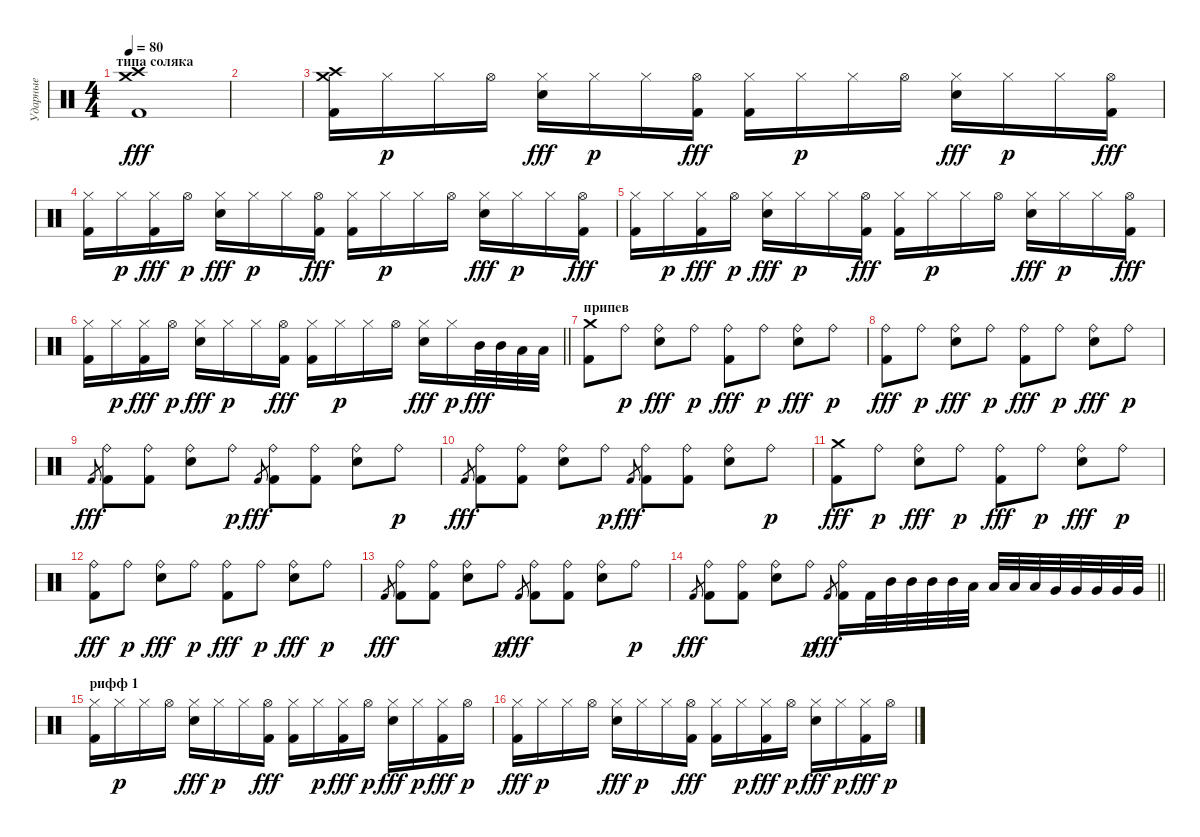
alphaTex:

\track ("Ударные" "Ударные") {instrument percussion}
\staff {score}
\articulation defaults
\ts (4 4)
\section ("" "типа соляка")
\tempo 80
\clef neutral
\ks c
("Crash medium (hit)" "Crash high (hit)" "Kick (hit) 2").1{dy fff} |
|
("Crash medium (hit)" "Crash high (hit)" "Kick (hit) 2").16 "Hi-Hat (closed)".16{dy p} "Hi-Hat (closed)".16 "Hi-Hat (open)".16 ("Hi-Hat (closed)" "Snare (hit) 2").16{dy fff} "Hi-Hat (closed)".16{dy p} "Hi-Hat (closed)".16 ("Hi-Hat (open)" "Kick (hit) 2").16{dy fff} ("Hi-Hat (closed)" "Kick (hit) 2").16 "Hi-Hat (closed)".16{dy p} "Hi-Hat (closed)".16 "Hi-Hat (open)".16 ("Hi-Hat (closed)" "Snare (hit) 2").16{dy fff} "Hi-Hat (closed)".16{dy p} "Hi-Hat (closed)".16 ("Hi-Hat (open)" "Kick (hit) 2").16{dy fff} |
("Hi-Hat (closed)" "Kick (hit) 2").16 "Hi-Hat (closed)".16{dy p} ("Hi-Hat (closed)" "Kick (hit) 2").16{dy fff} "Hi-Hat (open)".16{dy p} ("Hi-Hat (closed)" "Snare (hit) 2").16{dy fff} "Hi-Hat (closed)".16{dy p} "Hi-Hat (closed)".16 ("Hi-Hat (open)" "Kick (hit) 2").16{dy fff} ("Hi-Hat (closed)" "Kick (hit) 2").16 "Hi-Hat (closed)".16{dy p} "Hi-Hat (closed)".16 "Hi-Hat (open)".16 ("Hi-Hat (closed)" "Snare (hit) 2").16{dy fff} "Hi-Hat (closed)".16{dy p} "Hi-Hat (closed)".16 ("Hi-Hat (open)" "Kick (hit) 2").16{dy fff} |
("Hi-Hat (closed)" "Kick (hit) 2").16 "Hi-Hat (closed)".16{dy p} ("Hi-Hat (closed)" "Kick (hit) 2").16{dy fff} "Hi-Hat (open)".16{dy p} ("Hi-Hat (closed)" "Snare (hit) 2").16{dy fff} "Hi-Hat (closed)".16{dy p} "Hi-Hat (closed)".16 ("Hi-Hat (open)" "Kick (hit) 2").16{dy fff} ("Hi-Hat (closed)" "Kick (hit) 2").16 "Hi-Hat (closed)".16{dy p} "Hi-Hat (closed)".16 "Hi-Hat (open)".16 ("Hi-Hat (closed)" "Snare (hit) 2").16{dy fff} "Hi-Hat (closed)".16{dy p} "Hi-Hat (closed)".16 ("Hi-Hat (open)" "Kick (hit) 2").16{dy fff} |
\barLineRight lightlight
("Hi-Hat (closed)" "Kick (hit) 2").16 "Hi-Hat (closed)".16{dy p} ("Hi-Hat (closed)" "Kick (hit) 2").16{dy fff} "Hi-Hat (open)".16{dy p} ("Hi-Hat (closed)" "Snare (hit) 2").16{dy fff} "Hi-Hat (closed)".16{dy p} "Hi-Hat (closed)".16 ("Hi-Hat (open)" "Kick (hit) 2").16{dy fff} ("Hi-Hat (closed)" "Kick (hit) 2").16 "Hi-Hat (closed)".16{dy p} "Hi-Hat (closed)".16 "Hi-Hat (open)".16 ("Hi-Hat (closed)" "Snare (hit) 2").16{dy fff} "Hi-Hat (closed)".16{dy p} "Mid Tom (hit)".32{dy fff} "Mid Tom (hit)".32 "Low Tom (hit)".32 "Low Tom (hit)".32 |
\section ("" "припев")
("Crash medium (hit)" "Kick (hit) 2").8 "Ride (bell)".8{dy p} ("Ride (bell)" "Snare (hit) 2").8{dy fff} "Ride (bell)".8{dy p} ("Ride (bell)" "Kick (hit) 2").8{dy fff} "Ride (bell)".8{dy p} ("Ride (bell)" "Snare (hit) 2").8{dy fff} "Ride (bell)".8{dy p} |
("Ride (bell)" "Kick (hit) 2").8{dy fff} "Ride (bell)".8{dy p} ("Ride (bell)" "Snare (hit) 2").8{dy fff} "Ride (bell)".8{dy p} ("Ride (bell)" "Kick (hit) 2").8{dy fff} "Ride (bell)".8{dy p} ("Ride (bell)" "Snare (hit) 2").8{dy fff} "Ride (bell)".8{dy p} |
"Kick (hit) 2".8{gr dy fff} ("Ride (bell)" "Kick (hit) 2").8 ("Ride (bell)" "Kick (hit) 2").8 ("Ride (bell)" "Snare (hit) 2").8 "Ride (bell)".8{dy p} "Kick (hit) 2".8{gr dy fff} ("Ride (bell)" "Kick (hit) 2").8 ("Ride (bell)" "Kick (hit) 2").8 ("Ride (bell)" "Snare (hit) 2").8 "Ride (bell)".8{dy p} |
"Kick (hit) 2".8{gr dy fff} ("Ride (bell)" "Kick (hit) 2").8 ("Ride (bell)" "Kick (hit) 2").8 ("Ride (bell)" "Snare (hit) 2").8 "Ride (bell)".8{dy p} "Kick (hit) 2".8{gr dy fff} ("Ride (bell)" "Kick (hit) 2").8 ("Ride (bell)" "Kick (hit) 2").8 ("Ride (bell)" "Snare (hit) 2").8 "Ride (bell)".8{dy p} |
("Crash medium (hit)" "Kick (hit) 2").8{dy fff} "Ride (bell)".8{dy p} ("Ride (bell)" "Snare (hit) 2").8{dy fff} "Ride (bell)".8{dy p} ("Ride (bell)" "Kick (hit) 2").8{dy fff} "Ride (bell)".8{dy p} ("Ride (bell)" "Snare (hit) 2").8{dy fff} "Ride (bell)".8{dy p} |
("Ride (bell)" "Kick (hit) 2").8{dy fff} "Ride (bell)".8{dy p} ("Ride (bell)" "Snare (hit) 2").8{dy fff} "Ride (bell)".8{dy p} ("Ride (bell)" "Kick (hit) 2").8{dy fff} "Ride (bell)".8{dy p} ("Ride (bell)" "Snare (hit) 2").8{dy fff} "Ride (bell)".8{dy p} |
"Kick (hit) 2".8{gr dy fff} ("Ride (bell)" "Kick (hit) 2").8 ("Ride (bell)" "Kick (hit) 2").8 ("Ride (bell)" "Snare (hit) 2").8 "Ride (bell)".8{dy p} "Kick (hit) 2".8{gr dy fff} ("Ride (bell)" "Kick (hit) 2").8 ("Ride (bell)" "Kick (hit) 2").8 ("Ride (bell)" "Snare (hit) 2").8 "Ride (bell)".8{dy p} |
\barLineRight lightlight "Kick (hit) 2".8{gr dy fff}
("Ride (bell)" "Kick (hit) 2").8 ("Ride (bell)" "Kick (hit) 2").8 ("Ride (bell)" "Snare (hit) 2").8 "Ride (bell)".8{dy p} "Kick (hit) 2".8{gr dy fff} ("Ride (bell)" "Kick (hit) 2").16 "Kick (hit) 2".32 "Mid Tom (hit)".32 "Mid Tom (hit)".32 "Mid Tom (hit)".32 "Mid Tom (hit)".32 "Low Tom (hit)".32 "Low Tom (hit)".32 "Low Tom (hit)".32 "Low Tom (hit)".32 "Very Low Tom (hit)".32 "Very Low Tom (hit)".32 "Very Low Tom (hit)".32 "Very Low Tom (hit)".32 "Very Low Tom (hit)".32 |
\section ("" "рифф 1")
("Hi-Hat (closed)" "Kick (hit) 2").16 "Hi-Hat (closed)".16{dy p} "Hi-Hat (closed)".16 "Hi-Hat (open)".16 ("Hi-Hat (closed)" "Snare (hit) 2").16{dy fff} "Hi-Hat (closed)".16{dy p} "Hi-Hat (closed)".16 ("Hi-Hat (open)" "Kick (hit) 2").16{dy fff} ("Hi-Hat (closed)" "Kick (hit) 2").16 "Hi-Hat (closed)".16{dy p} ("Hi-Hat (closed)" "Kick (hit) 2").16{dy fff} "Hi-Hat (open)".16{dy p} ("Hi-Hat (closed)" "Snare (hit) 2").16{dy fff} "Hi-Hat (closed)".16{dy p} ("Hi-Hat (closed)" "Kick (hit) 2").16{dy fff} "Hi-Hat (open)".16{dy p} |
("Hi-Hat (closed)" "Kick (hit) 2").16{dy fff} "Hi-Hat (closed)".16{dy p} "Hi-Hat (closed)".16 "Hi-Hat (open)".16 ("Hi-Hat (closed)" "Snare (hit) 2").16{dy fff} "Hi-Hat (closed)".16{dy p} "Hi-Hat (closed)".16 ("Hi-Hat (open)" "Kick (hit) 2").16{dy fff} ("Hi-Hat (closed)" "Kick (hit) 2").16 "Hi-Hat (closed)".16{dy p} ("Hi-Hat (closed)" "Kick (hit) 2").16{dy fff} "Hi-Hat (open)".16{dy p} ("Hi-Hat (closed)" "Snare (hit) 2").16{dy fff} "Hi-Hat (closed)".16{dy p} ("Hi-Hat (closed)" "Kick (hit) 2").16{dy fff} "Hi-Hat (open)".16{dy p}
